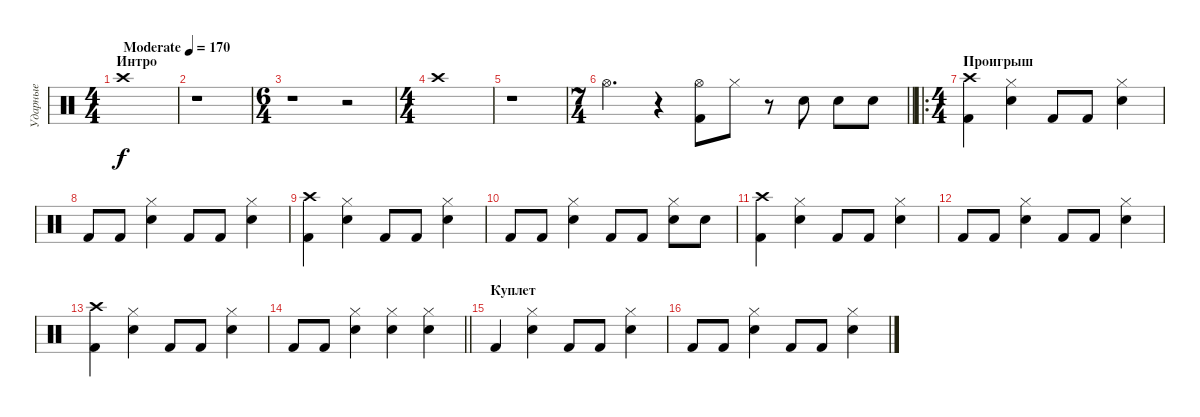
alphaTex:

\track ("Ударные" "Ударные") {instrument percussion}
\staff {score}
\articulation defaults
\ts (4 4)
\section ("" "Интро")
\tempo (170 "Moderate")
\clef neutral
\ks c "Crash high (hit)".1{dy f}
|
r.1 |
\ts (6 4)
r.1 r.2 |
\ts (4 4)
"Crash high (hit)".1 |
r.1 |
\ts (7 4)
\barLineRight lightlight "Hi-Hat (open)".2{d}
r.4 ("Hi-Hat (open)" "Kick (hit) 2").8 "Hi-Hat (closed)".8 r.8 "Snare (hit) 2".8 "Snare (hit) 2".8 "Snare (hit) 2".8 |
\ro
\ts (4 4)
\section ("" "Проигрыш")
("Crash high (hit)" "Kick (hit) 2").4 ("Hi-Hat (closed)" "Snare (hit) 2").4 "Kick (hit) 2".8 "Kick (hit) 2".8 ("Hi-Hat (closed)" "Snare (hit) 2").4 |
"Kick (hit) 2".8 "Kick (hit) 2".8 ("Hi-Hat (closed)" "Snare (hit) 2").4 "Kick (hit) 2".8 "Kick (hit) 2".8 ("Hi-Hat (closed)" "Snare (hit) 2").4 |
("Crash high (hit)" "Kick (hit) 2").4 ("Hi-Hat (closed)" "Snare (hit) 2").4 "Kick (hit) 2".8 "Kick (hit) 2".8 ("Hi-Hat (closed)" "Snare (hit) 2").4 |
"Kick (hit) 2".8 "Kick (hit) 2".8 ("Hi-Hat (closed)" "Snare (hit) 2").4 "Kick (hit) 2".8 "Kick (hit) 2".8 ("Hi-Hat (closed)" "Snare (hit) 2").8 "Snare (hit) 2".8 |
("Crash high (hit)" "Kick (hit) 2").4 ("Hi-Hat (closed)" "Snare (hit) 2").4 "Kick (hit) 2".8 "Kick (hit) 2".8 ("Hi-Hat (closed)" "Snare (hit) 2").4 |
"Kick (hit) 2".8 "Kick (hit) 2".8 ("Hi-Hat (closed)" "Snare (hit) 2").4 "Kick (hit) 2".8 "Kick (hit) 2".8 ("Hi-Hat (closed)" "Snare (hit) 2").4 |
("Crash high (hit)" "Kick (hit) 2").4 ("Hi-Hat (closed)" "Snare (hit) 2").4 "Kick (hit) 2".8 "Kick (hit) 2".8 ("Hi-Hat (closed)" "Snare (hit) 2").4 |
\barLineRight lightlight "Kick (hit) 2".8 "Kick (hit) 2".8
("Hi-Hat (closed)" "Snare (hit) 2").4 ("Hi-Hat (closed)" "Snare (hit) 2").4 ("Hi-Hat (closed)" "Snare (hit) 2").4 |
\section ("" "Куплет")
"Kick (hit) 2".4 ("Hi-Hat (closed)" "Snare (hit) 2").4 "Kick (hit) 2".8 "Kick (hit) 2".8 ("Hi-Hat (closed)" "Snare (hit) 2").4 |
"Kick (hit) 2".8 "Kick (hit) 2".8 ("Hi-Hat (closed)" "Snare (hit) 2").4 "Kick (hit) 2".8 "Kick (hit) 2".8 ("Hi-Hat (closed)" "Snare (hit) 2").4
